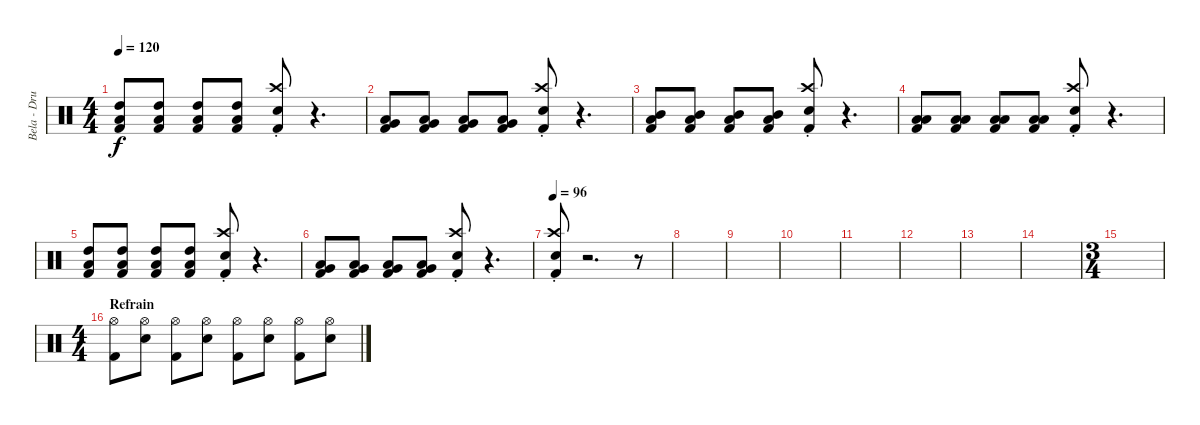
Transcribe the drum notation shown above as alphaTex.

\track ("Bela - Drums" "Bela - Dru") {instrument percussion}
\staff {score}
\articulation defaults
\ts (4 4)
\tempo 120
\clef neutral
\ks c
("Low Floor Tom (hit)" "High Tom (hit)" "Kick (hit) 2").8{dy f} ("Low Floor Tom (hit)" "High Tom (hit)" "Kick (hit) 2").8 ("Low Floor Tom (hit)" "High Tom (hit)" "Kick (hit) 2").8 ("Low Floor Tom (hit)" "High Tom (hit)" "Kick (hit) 2").8 ("Crash high (hit)"{st} "Snare (hit) 2" "Kick (hit) 2").8 r.4{d} |
("Low Floor Tom (hit)" "Very Low Tom (hit)" "Kick (hit) 2").8 ("Low Floor Tom (hit)" "Very Low Tom (hit)" "Kick (hit) 2").8 ("Low Floor Tom (hit)" "Very Low Tom (hit)" "Kick (hit) 2").8 ("Low Floor Tom (hit)" "Very Low Tom (hit)" "Kick (hit) 2").8 ("Crash high (hit)"{st} "Snare (hit) 2" "Kick (hit) 2").8 r.4{d} |
("Low Floor Tom (hit)" "Mid Tom (hit)" "Kick (hit) 2").8 ("Low Floor Tom (hit)" "Mid Tom (hit)" "Kick (hit) 2").8 ("Low Floor Tom (hit)" "Mid Tom (hit)" "Kick (hit) 2").8 ("Low Floor Tom (hit)" "Mid Tom (hit)" "Kick (hit) 2").8 ("Crash high (hit)"{st} "Snare (hit) 2" "Kick (hit) 2").8 r.4{d} |
("Low Floor Tom (hit)" "Low Tom (hit)" "Kick (hit) 2").8 ("Low Floor Tom (hit)" "Low Tom (hit)" "Kick (hit) 2").8 ("Low Floor Tom (hit)" "Low Tom (hit)" "Kick (hit) 2").8 ("Low Floor Tom (hit)" "Low Tom (hit)" "Kick (hit) 2").8 ("Crash high (hit)"{st} "Snare (hit) 2" "Kick (hit) 2").8 r.4{d} |
("Low Floor Tom (hit)" "High Tom (hit)" "Kick (hit) 2").8 ("Low Floor Tom (hit)" "High Tom (hit)" "Kick (hit) 2").8 ("Low Floor Tom (hit)" "High Tom (hit)" "Kick (hit) 2").8 ("Low Floor Tom (hit)" "High Tom (hit)" "Kick (hit) 2").8 ("Crash high (hit)"{st} "Snare (hit) 2" "Kick (hit) 2").8 r.4{d} |
("Low Floor Tom (hit)" "Very Low Tom (hit)" "Kick (hit) 2").8 ("Low Floor Tom (hit)" "Very Low Tom (hit)" "Kick (hit) 2").8 ("Low Floor Tom (hit)" "Very Low Tom (hit)" "Kick (hit) 2").8 ("Low Floor Tom (hit)" "Very Low Tom (hit)" "Kick (hit) 2").8 ("Crash high (hit)"{st} "Snare (hit) 2" "Kick (hit) 2").8 r.4{d} |
\tempo 96
("Crash high (hit)"{st} "Snare (hit) 2" "Kick (hit) 2").8 r.2{d} r.8 |
|
|
|
|
|
|
|
\ts (3 4)
|
\ts (4 4)
\section ("" "Refrain")
("Hi-Hat (open)" "Kick (hit) 2").8 ("Hi-Hat (open)" "Snare (hit) 2").8 ("Hi-Hat (open)" "Kick (hit) 2").8 ("Hi-Hat (open)" "Snare (hit) 2").8 ("Hi-Hat (open)" "Kick (hit) 2").8 ("Hi-Hat (open)" "Snare (hit) 2").8 ("Hi-Hat (open)" "Kick (hit) 2").8 ("Hi-Hat (open)" "Snare (hit) 2").8
